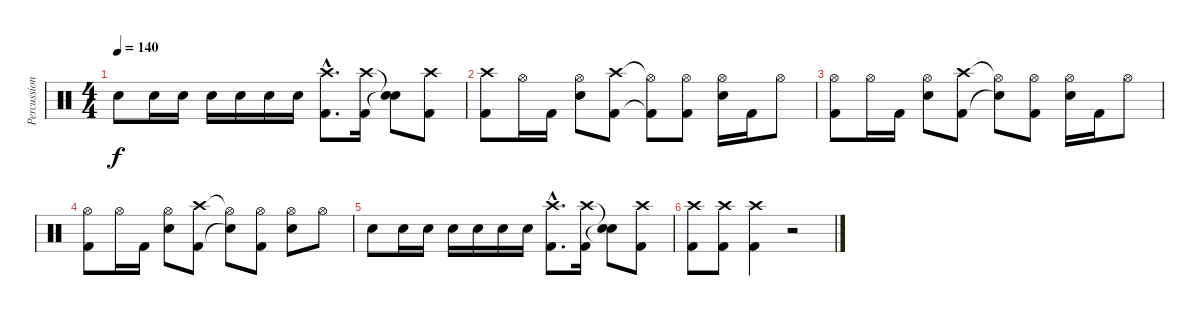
\track ("Percussion" "Percussion") {instrument percussion}
\staff {score}
\articulation defaults
\ts (4 4)
\tempo 140
\clef neutral
\ks c "Snare (hit) 2".8{dy f} "Snare (hit) 2".16 "Snare (hit) 2".16 "Snare (hit) 2".16 "Snare (hit) 2".16 "Snare (hit) 2".16 "Snare (hit) 2".16
("Crash high (hit)"{hac} "Kick (hit) 2"{hac}).8{d} ("Crash high (hit)" "Kick (hit) 2").16 ("Snare (hit)"{t} "Snare (hit)"{t}).8 ("Crash high (hit)" "Kick (hit) 2").8 |
("Crash high (hit)" "Kick (hit) 2").8 "Hi-Hat (open)".16 "Kick (hit) 2".16 ("Hi-Hat (open)" "Snare (hit) 2").8 ("Crash high (hit)" "Kick (hit) 2").8 ("Hi-Hat (open)"{t} "Kick (hit) 2"{t}).8 ("Hi-Hat (open)" "Kick (hit) 2").8 ("Hi-Hat (open)" "Snare (hit) 2").16 "Kick (hit) 2".16 "Hi-Hat (open)".8 |
("Hi-Hat (open)" "Kick (hit) 2").8 "Hi-Hat (open)".16 "Kick (hit) 2".16 ("Hi-Hat (open)" "Snare (hit) 2").8 ("Crash high (hit)" "Kick (hit) 2").8 ("Hi-Hat (open)"{t} "Snare (hit)"{t}).8 ("Hi-Hat (open)" "Kick (hit) 2").8 ("Hi-Hat (open)" "Snare (hit) 2").16 "Kick (hit) 2".16 "Hi-Hat (open)".8 |
("Hi-Hat (open)" "Kick (hit) 2").8 "Hi-Hat (open)".16 "Kick (hit) 2".16 ("Hi-Hat (open)" "Snare (hit) 2").8 ("Crash high (hit)" "Kick (hit) 2").8 ("Hi-Hat (open)"{t} "Snare (hit)"{t}).8 ("Hi-Hat (open)" "Kick (hit) 2").8 ("Hi-Hat (open)" "Snare (hit) 2").8 "Hi-Hat (open)".8 |
"Snare (hit) 2".8 "Snare (hit) 2".16 "Snare (hit) 2".16 "Snare (hit) 2".16 "Snare (hit) 2".16 "Snare (hit) 2".16 "Snare (hit) 2".16 ("Crash high (hit)"{hac} "Kick (hit) 2"{hac}).8{d} ("Crash high (hit)" "Kick (hit) 2").16 ("Snare (hit)"{t} "Snare (hit)"{t}).8 ("Crash high (hit)" "Kick (hit) 2").8 |
("Crash high (hit)" "Kick (hit) 2").8 ("Crash high (hit)" "Kick (hit) 2").8 ("Crash high (hit)" "Kick (hit) 2").4 r.2
